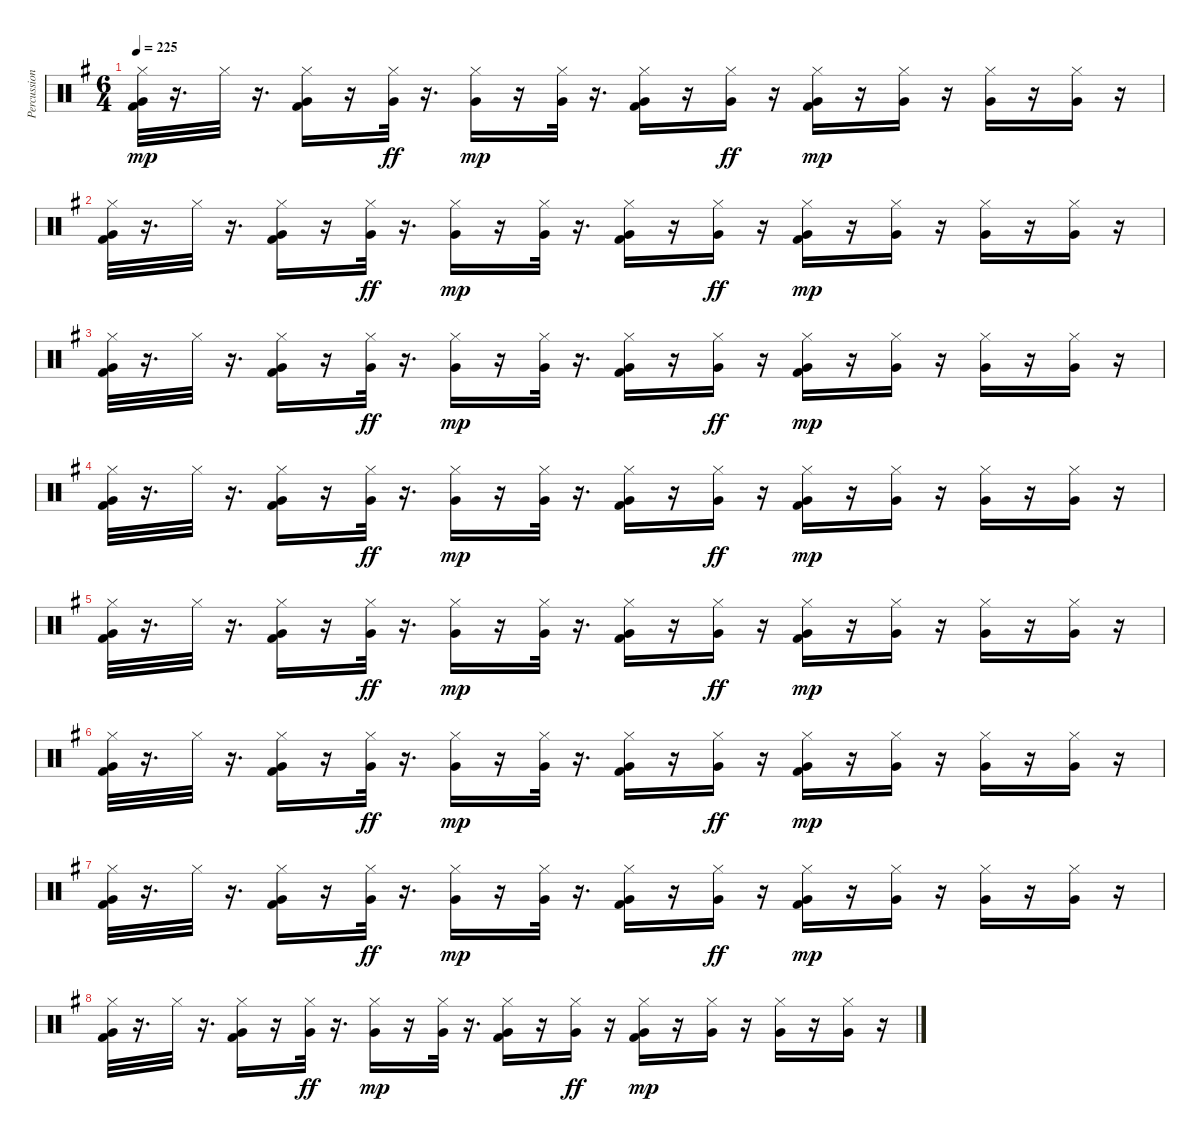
\track ("Percussion" "Percussion") {instrument percussion}
\staff {score}
\articulation defaults
\ts (6 4)
\tempo 225
\clef neutral
\ks g
("Hi-Hat (closed)" "Very Low Tom (hit)" "Kick (hit) 2").32{dy mp} r.16{d} "Hi-Hat (closed)".32 r.16{d} ("Hi-Hat (closed)" "Very Low Tom (hit)" "Kick (hit) 2").16 r.16 ("Hi-Hat (closed)" "Very Low Tom (hit)").32{dy ff} r.16{d} ("Hi-Hat (closed)" "Very Low Tom (hit)").16{dy mp} r.16 ("Hi-Hat (closed)" "Very Low Tom (hit)").32 r.16{d} ("Hi-Hat (closed)" "Very Low Tom (hit)" "Kick (hit) 2").16 r.16 ("Hi-Hat (closed)" "Very Low Tom (hit)").16{dy ff} r.16 ("Hi-Hat (closed)" "Very Low Tom (hit)" "Kick (hit) 2").16{dy mp} r.16 ("Hi-Hat (closed)" "Very Low Tom (hit)").16 r.16 ("Hi-Hat (closed)" "Very Low Tom (hit)").16 r.16 ("Hi-Hat (closed)" "Very Low Tom (hit)").16 r.16 |
("Hi-Hat (closed)" "Very Low Tom (hit)" "Kick (hit) 2").32 r.16{d} "Hi-Hat (closed)".32 r.16{d} ("Hi-Hat (closed)" "Very Low Tom (hit)" "Kick (hit) 2").16 r.16 ("Hi-Hat (closed)" "Very Low Tom (hit)").32{dy ff} r.16{d} ("Hi-Hat (closed)" "Very Low Tom (hit)").16{dy mp} r.16 ("Hi-Hat (closed)" "Very Low Tom (hit)").32 r.16{d} ("Hi-Hat (closed)" "Very Low Tom (hit)" "Kick (hit) 2").16 r.16 ("Hi-Hat (closed)" "Very Low Tom (hit)").16{dy ff} r.16 ("Hi-Hat (closed)" "Very Low Tom (hit)" "Kick (hit) 2").16{dy mp} r.16 ("Hi-Hat (closed)" "Very Low Tom (hit)").16 r.16 ("Hi-Hat (closed)" "Very Low Tom (hit)").16 r.16 ("Hi-Hat (closed)" "Very Low Tom (hit)").16 r.16 |
\ks eminor
("Hi-Hat (closed)" "Very Low Tom (hit)" "Kick (hit) 2").32 r.16{d} "Hi-Hat (closed)".32 r.16{d} ("Hi-Hat (closed)" "Very Low Tom (hit)" "Kick (hit) 2").16 r.16 ("Hi-Hat (closed)" "Very Low Tom (hit)").32{dy ff} r.16{d} ("Hi-Hat (closed)" "Very Low Tom (hit)").16{dy mp} r.16 ("Hi-Hat (closed)" "Very Low Tom (hit)").32 r.16{d} ("Hi-Hat (closed)" "Very Low Tom (hit)" "Kick (hit) 2").16 r.16 ("Hi-Hat (closed)" "Very Low Tom (hit)").16{dy ff} r.16 ("Hi-Hat (closed)" "Very Low Tom (hit)" "Kick (hit) 2").16{dy mp} r.16 ("Hi-Hat (closed)" "Very Low Tom (hit)").16 r.16 ("Hi-Hat (closed)" "Very Low Tom (hit)").16 r.16 ("Hi-Hat (closed)" "Very Low Tom (hit)").16 r.16 |
("Hi-Hat (closed)" "Very Low Tom (hit)" "Kick (hit) 2").32 r.16{d} "Hi-Hat (closed)".32 r.16{d} ("Hi-Hat (closed)" "Very Low Tom (hit)" "Kick (hit) 2").16 r.16 ("Hi-Hat (closed)" "Very Low Tom (hit)").32{dy ff} r.16{d} ("Hi-Hat (closed)" "Very Low Tom (hit)").16{dy mp} r.16 ("Hi-Hat (closed)" "Very Low Tom (hit)").32 r.16{d} ("Hi-Hat (closed)" "Very Low Tom (hit)" "Kick (hit) 2").16 r.16 ("Hi-Hat (closed)" "Very Low Tom (hit)").16{dy ff} r.16 ("Hi-Hat (closed)" "Very Low Tom (hit)" "Kick (hit) 2").16{dy mp} r.16 ("Hi-Hat (closed)" "Very Low Tom (hit)").16 r.16 ("Hi-Hat (closed)" "Very Low Tom (hit)").16 r.16 ("Hi-Hat (closed)" "Very Low Tom (hit)").16 r.16 |
("Hi-Hat (closed)" "Very Low Tom (hit)" "Kick (hit) 2").32 r.16{d} "Hi-Hat (closed)".32 r.16{d} ("Hi-Hat (closed)" "Very Low Tom (hit)" "Kick (hit) 2").16 r.16 ("Hi-Hat (closed)" "Very Low Tom (hit)").32{dy ff} r.16{d} ("Hi-Hat (closed)" "Very Low Tom (hit)").16{dy mp} r.16 ("Hi-Hat (closed)" "Very Low Tom (hit)").32 r.16{d} ("Hi-Hat (closed)" "Very Low Tom (hit)" "Kick (hit) 2").16 r.16 ("Hi-Hat (closed)" "Very Low Tom (hit)").16{dy ff} r.16 ("Hi-Hat (closed)" "Very Low Tom (hit)" "Kick (hit) 2").16{dy mp} r.16 ("Hi-Hat (closed)" "Very Low Tom (hit)").16 r.16 ("Hi-Hat (closed)" "Very Low Tom (hit)").16 r.16 ("Hi-Hat (closed)" "Very Low Tom (hit)").16 r.16 |
("Hi-Hat (closed)" "Very Low Tom (hit)" "Kick (hit) 2").32 r.16{d} "Hi-Hat (closed)".32 r.16{d} ("Hi-Hat (closed)" "Very Low Tom (hit)" "Kick (hit) 2").16 r.16 ("Hi-Hat (closed)" "Very Low Tom (hit)").32{dy ff} r.16{d} ("Hi-Hat (closed)" "Very Low Tom (hit)").16{dy mp} r.16 ("Hi-Hat (closed)" "Very Low Tom (hit)").32 r.16{d} ("Hi-Hat (closed)" "Very Low Tom (hit)" "Kick (hit) 2").16 r.16 ("Hi-Hat (closed)" "Very Low Tom (hit)").16{dy ff} r.16 ("Hi-Hat (closed)" "Very Low Tom (hit)" "Kick (hit) 2").16{dy mp} r.16 ("Hi-Hat (closed)" "Very Low Tom (hit)").16 r.16 ("Hi-Hat (closed)" "Very Low Tom (hit)").16 r.16 ("Hi-Hat (closed)" "Very Low Tom (hit)").16 r.16 |
("Hi-Hat (closed)" "Very Low Tom (hit)" "Kick (hit) 2").32 r.16{d} "Hi-Hat (closed)".32 r.16{d} ("Hi-Hat (closed)" "Very Low Tom (hit)" "Kick (hit) 2").16 r.16 ("Hi-Hat (closed)" "Very Low Tom (hit)").32{dy ff} r.16{d} ("Hi-Hat (closed)" "Very Low Tom (hit)").16{dy mp} r.16 ("Hi-Hat (closed)" "Very Low Tom (hit)").32 r.16{d} ("Hi-Hat (closed)" "Very Low Tom (hit)" "Kick (hit) 2").16 r.16 ("Hi-Hat (closed)" "Very Low Tom (hit)").16{dy ff} r.16 ("Hi-Hat (closed)" "Very Low Tom (hit)" "Kick (hit) 2").16{dy mp} r.16 ("Hi-Hat (closed)" "Very Low Tom (hit)").16 r.16 ("Hi-Hat (closed)" "Very Low Tom (hit)").16 r.16 ("Hi-Hat (closed)" "Very Low Tom (hit)").16 r.16 |
("Hi-Hat (closed)" "Very Low Tom (hit)" "Kick (hit) 2").32 r.16{d} "Hi-Hat (closed)".32 r.16{d} ("Hi-Hat (closed)" "Very Low Tom (hit)" "Kick (hit) 2").16 r.16 ("Hi-Hat (closed)" "Very Low Tom (hit)").32{dy ff} r.16{d} ("Hi-Hat (closed)" "Very Low Tom (hit)").16{dy mp} r.16 ("Hi-Hat (closed)" "Very Low Tom (hit)").32 r.16{d} ("Hi-Hat (closed)" "Very Low Tom (hit)" "Kick (hit) 2").16 r.16 ("Hi-Hat (closed)" "Very Low Tom (hit)").16{dy ff} r.16 ("Hi-Hat (closed)" "Very Low Tom (hit)" "Kick (hit) 2").16{dy mp} r.16 ("Hi-Hat (closed)" "Very Low Tom (hit)").16 r.16 ("Hi-Hat (closed)" "Very Low Tom (hit)").16 r.16 ("Hi-Hat (closed)" "Very Low Tom (hit)").16 r.16
